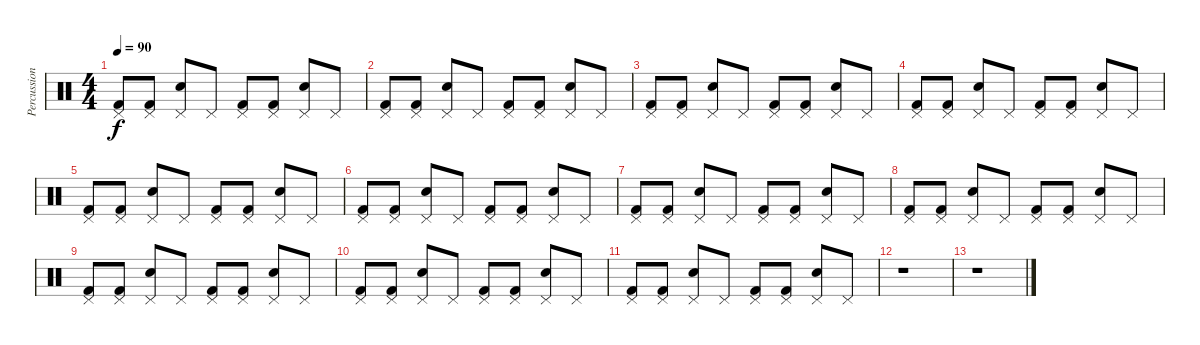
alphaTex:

\track ("Percussions" "Percussion") {instrument percussion}
\staff {score}
\articulation defaults
\ts (4 4)
\tempo 90
\clef neutral
\ks c
("Pedal Hi-Hat (hit)" "Kick (hit) 2").8{dy f} ("Pedal Hi-Hat (hit)" "Kick (hit) 2").8 ("Pedal Hi-Hat (hit)" "Electric Snare (hit)").8 "Pedal Hi-Hat (hit)".8 ("Pedal Hi-Hat (hit)" "Kick (hit) 2").8 ("Pedal Hi-Hat (hit)" "Kick (hit) 2").8 ("Pedal Hi-Hat (hit)" "Electric Snare (hit)").8 "Pedal Hi-Hat (hit)".8 |
("Pedal Hi-Hat (hit)" "Kick (hit) 2").8 ("Pedal Hi-Hat (hit)" "Kick (hit) 2").8 ("Pedal Hi-Hat (hit)" "Electric Snare (hit)").8 "Pedal Hi-Hat (hit)".8 ("Pedal Hi-Hat (hit)" "Kick (hit) 2").8 ("Pedal Hi-Hat (hit)" "Kick (hit) 2").8 ("Pedal Hi-Hat (hit)" "Electric Snare (hit)").8 "Pedal Hi-Hat (hit)".8 |
("Pedal Hi-Hat (hit)" "Kick (hit) 2").8 ("Pedal Hi-Hat (hit)" "Kick (hit) 2").8 ("Pedal Hi-Hat (hit)" "Electric Snare (hit)").8 "Pedal Hi-Hat (hit)".8 ("Pedal Hi-Hat (hit)" "Kick (hit) 2").8 ("Pedal Hi-Hat (hit)" "Kick (hit) 2").8 ("Pedal Hi-Hat (hit)" "Electric Snare (hit)").8 "Pedal Hi-Hat (hit)".8 |
("Pedal Hi-Hat (hit)" "Kick (hit) 2").8 ("Pedal Hi-Hat (hit)" "Kick (hit) 2").8 ("Pedal Hi-Hat (hit)" "Electric Snare (hit)").8 "Pedal Hi-Hat (hit)".8 ("Pedal Hi-Hat (hit)" "Kick (hit) 2").8 ("Pedal Hi-Hat (hit)" "Kick (hit) 2").8 ("Pedal Hi-Hat (hit)" "Electric Snare (hit)").8 "Pedal Hi-Hat (hit)".8 |
("Pedal Hi-Hat (hit)" "Kick (hit) 2").8 ("Pedal Hi-Hat (hit)" "Kick (hit) 2").8 ("Pedal Hi-Hat (hit)" "Electric Snare (hit)").8 "Pedal Hi-Hat (hit)".8 ("Pedal Hi-Hat (hit)" "Kick (hit) 2").8 ("Pedal Hi-Hat (hit)" "Kick (hit) 2").8 ("Pedal Hi-Hat (hit)" "Electric Snare (hit)").8 "Pedal Hi-Hat (hit)".8 |
("Pedal Hi-Hat (hit)" "Kick (hit) 2").8 ("Pedal Hi-Hat (hit)" "Kick (hit) 2").8 ("Pedal Hi-Hat (hit)" "Electric Snare (hit)").8 "Pedal Hi-Hat (hit)".8 ("Pedal Hi-Hat (hit)" "Kick (hit) 2").8 ("Pedal Hi-Hat (hit)" "Kick (hit) 2").8 ("Pedal Hi-Hat (hit)" "Electric Snare (hit)").8 "Pedal Hi-Hat (hit)".8 |
("Pedal Hi-Hat (hit)" "Kick (hit) 2").8 ("Pedal Hi-Hat (hit)" "Kick (hit) 2").8 ("Pedal Hi-Hat (hit)" "Electric Snare (hit)").8 "Pedal Hi-Hat (hit)".8 ("Pedal Hi-Hat (hit)" "Kick (hit) 2").8 ("Pedal Hi-Hat (hit)" "Kick (hit) 2").8 ("Pedal Hi-Hat (hit)" "Electric Snare (hit)").8 "Pedal Hi-Hat (hit)".8 |
("Pedal Hi-Hat (hit)" "Kick (hit) 2").8 ("Pedal Hi-Hat (hit)" "Kick (hit) 2").8 ("Pedal Hi-Hat (hit)" "Electric Snare (hit)").8 "Pedal Hi-Hat (hit)".8 ("Pedal Hi-Hat (hit)" "Kick (hit) 2").8 ("Pedal Hi-Hat (hit)" "Kick (hit) 2").8 ("Pedal Hi-Hat (hit)" "Electric Snare (hit)").8 "Pedal Hi-Hat (hit)".8 |
("Pedal Hi-Hat (hit)" "Kick (hit) 2").8 ("Pedal Hi-Hat (hit)" "Kick (hit) 2").8 ("Pedal Hi-Hat (hit)" "Electric Snare (hit)").8 "Pedal Hi-Hat (hit)".8 ("Pedal Hi-Hat (hit)" "Kick (hit) 2").8 ("Pedal Hi-Hat (hit)" "Kick (hit) 2").8 ("Pedal Hi-Hat (hit)" "Electric Snare (hit)").8 "Pedal Hi-Hat (hit)".8 |
("Pedal Hi-Hat (hit)" "Kick (hit) 2").8 ("Pedal Hi-Hat (hit)" "Kick (hit) 2").8 ("Pedal Hi-Hat (hit)" "Electric Snare (hit)").8 "Pedal Hi-Hat (hit)".8 ("Pedal Hi-Hat (hit)" "Kick (hit) 2").8 ("Pedal Hi-Hat (hit)" "Kick (hit) 2").8 ("Pedal Hi-Hat (hit)" "Electric Snare (hit)").8 "Pedal Hi-Hat (hit)".8 |
("Pedal Hi-Hat (hit)" "Kick (hit) 2").8 ("Pedal Hi-Hat (hit)" "Kick (hit) 2").8 ("Pedal Hi-Hat (hit)" "Electric Snare (hit)").8 "Pedal Hi-Hat (hit)".8 ("Pedal Hi-Hat (hit)" "Kick (hit) 2").8 ("Pedal Hi-Hat (hit)" "Kick (hit) 2").8 ("Pedal Hi-Hat (hit)" "Electric Snare (hit)").8 "Pedal Hi-Hat (hit)".8 |
r.1 |
r.1
